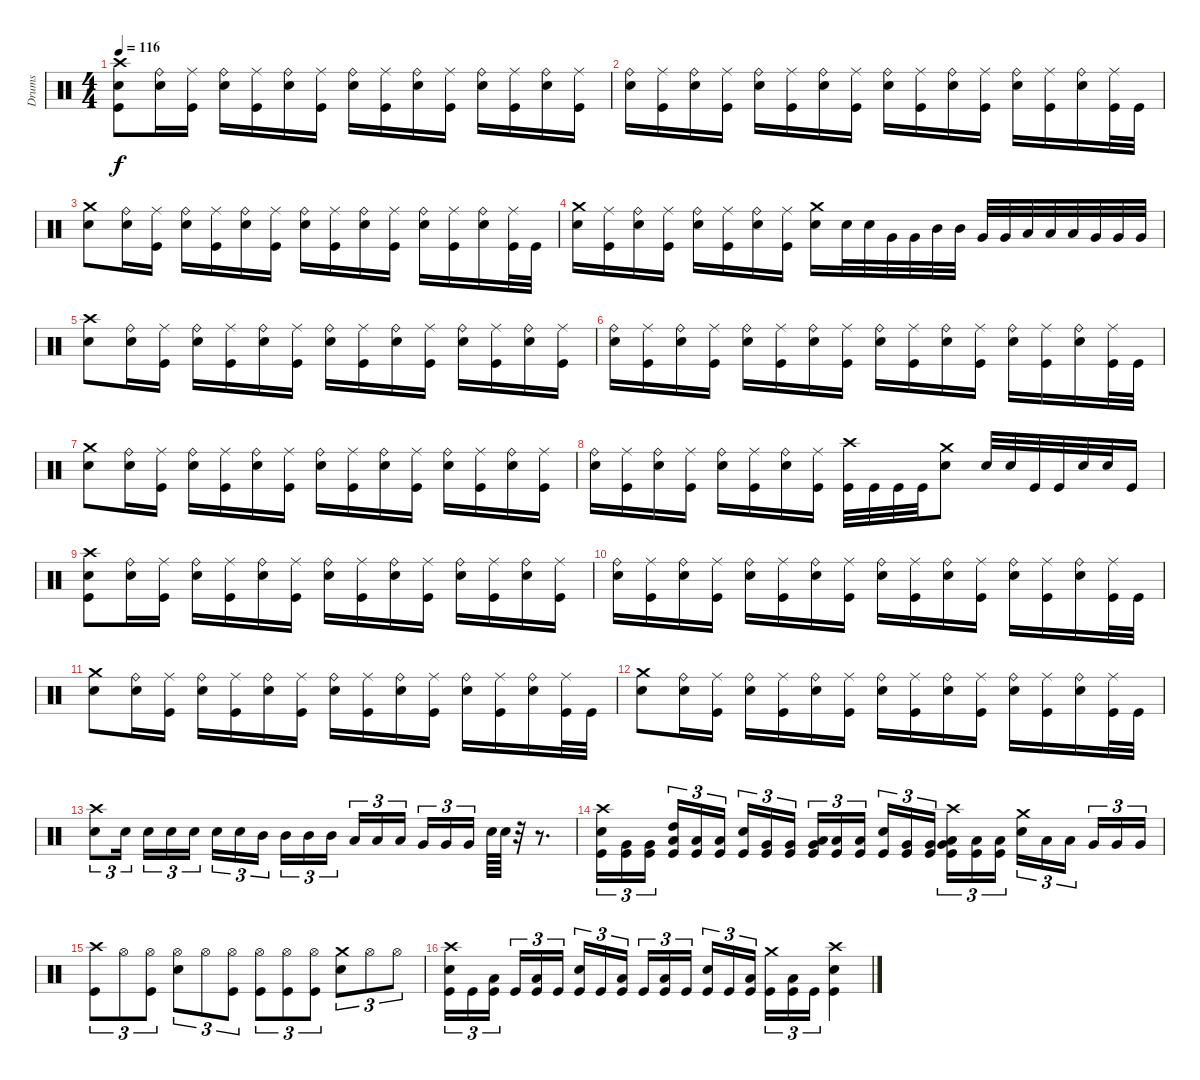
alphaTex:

\track ("Drums" "Drums") {instrument percussion}
\staff {score}
\articulation defaults
\ts (4 4)
\tempo 116
\clef neutral
\ks c
("Crash high (hit)" "Electric Snare (hit)" "Kick (hit)").8{dy f} ("Ride (bell)" "Electric Snare (hit)").16 ("Ride (middle)" "Kick (hit)").16 ("Ride (bell)" "Electric Snare (hit)").16 ("Ride (middle)" "Kick (hit)").16 ("Ride (bell)" "Electric Snare (hit)").16 ("Ride (middle)" "Kick (hit)").16 ("Ride (bell)" "Electric Snare (hit)").16 ("Ride (middle)" "Kick (hit)").16 ("Ride (bell)" "Electric Snare (hit)").16 ("Ride (middle)" "Kick (hit)").16 ("Ride (bell)" "Electric Snare (hit)").16 ("Ride (middle)" "Kick (hit)").16 ("Ride (bell)" "Electric Snare (hit)").16 ("Ride (middle)" "Kick (hit)").16 |
("Ride (bell)" "Electric Snare (hit)").16 ("Ride (middle)" "Kick (hit)").16 ("Ride (bell)" "Electric Snare (hit)").16 ("Ride (middle)" "Kick (hit)").16 ("Ride (bell)" "Electric Snare (hit)").16 ("Ride (middle)" "Kick (hit)").16 ("Ride (bell)" "Electric Snare (hit)").16 ("Ride (middle)" "Kick (hit)").16 ("Ride (bell)" "Electric Snare (hit)").16 ("Ride (middle)" "Kick (hit)").16 ("Ride (bell)" "Electric Snare (hit)").16 ("Ride (middle)" "Kick (hit)").16 ("Ride (bell)" "Electric Snare (hit)").16 ("Ride (middle)" "Kick (hit)").16 ("Ride (bell)" "Electric Snare (hit)").16 ("Ride (middle)" "Kick (hit)").32 "Kick (hit)".32 |
("Crash medium (hit)" "Electric Snare (hit)").8 ("Ride (bell)" "Electric Snare (hit)").16 ("Ride (middle)" "Kick (hit)").16 ("Ride (bell)" "Electric Snare (hit)").16 ("Ride (middle)" "Kick (hit)").16 ("Ride (bell)" "Electric Snare (hit)").16 ("Ride (middle)" "Kick (hit)").16 ("Ride (bell)" "Electric Snare (hit)").16 ("Ride (middle)" "Kick (hit)").16 ("Ride (bell)" "Electric Snare (hit)").16 ("Ride (middle)" "Kick (hit)").16 ("Ride (bell)" "Electric Snare (hit)").16 ("Ride (middle)" "Kick (hit)").16 ("Ride (bell)" "Electric Snare (hit)").16 ("Ride (middle)" "Kick (hit)").32 "Kick (hit)".32 |
("Crash medium (hit)" "Electric Snare (hit)").16 ("Ride (middle)" "Kick (hit)").16 ("Ride (bell)" "Electric Snare (hit)").16 ("Ride (middle)" "Kick (hit)").16 ("Ride (bell)" "Electric Snare (hit)").16 ("Ride (middle)" "Kick (hit)").16 ("Ride (bell)" "Electric Snare (hit)").16 ("Ride (middle)" "Kick (hit)").16 ("Crash medium (hit)" "Electric Snare (hit)").16 "Electric Snare (hit)".32 "Electric Snare (hit)".32 "Very Low Tom (hit)".32 "Very Low Tom (hit)".32 "Mid Tom (hit)".32 "Mid Tom (hit)".32 "Very Low Tom (hit)".32 "Very Low Tom (hit)".32 "Low Tom (hit)".32 "Low Tom (hit)".32 "Low Tom (hit)".32 "Very Low Tom (hit)".32 "Very Low Tom (hit)".32 "Very Low Tom (hit)".32 |
("Crash high (hit)" "Electric Snare (hit)").8 ("Ride (bell)" "Electric Snare (hit)").16 ("Ride (middle)" "Kick (hit)").16 ("Ride (bell)" "Electric Snare (hit)").16 ("Ride (middle)" "Kick (hit)").16 ("Ride (bell)" "Electric Snare (hit)").16 ("Ride (middle)" "Kick (hit)").16 ("Ride (bell)" "Electric Snare (hit)").16 ("Ride (middle)" "Kick (hit)").16 ("Ride (bell)" "Electric Snare (hit)").16 ("Ride (middle)" "Kick (hit)").16 ("Ride (bell)" "Electric Snare (hit)").16 ("Ride (middle)" "Kick (hit)").16 ("Ride (bell)" "Electric Snare (hit)").16 ("Ride (middle)" "Kick (hit)").16 |
("Ride (bell)" "Electric Snare (hit)").16 ("Ride (middle)" "Kick (hit)").16 ("Ride (bell)" "Electric Snare (hit)").16 ("Ride (middle)" "Kick (hit)").16 ("Ride (bell)" "Electric Snare (hit)").16 ("Ride (middle)" "Kick (hit)").16 ("Ride (bell)" "Electric Snare (hit)").16 ("Ride (middle)" "Kick (hit)").16 ("Ride (bell)" "Electric Snare (hit)").16 ("Ride (middle)" "Kick (hit)").16 ("Ride (bell)" "Electric Snare (hit)").16 ("Ride (middle)" "Kick (hit)").16 ("Ride (bell)" "Electric Snare (hit)").16 ("Ride (middle)" "Kick (hit)").16 ("Ride (bell)" "Electric Snare (hit)").16 ("Ride (middle)" "Kick (hit)").32 "Kick (hit)".32 |
("Crash medium (hit)" "Electric Snare (hit)").8 ("Ride (bell)" "Electric Snare (hit)").16 ("Ride (middle)" "Kick (hit)").16 ("Ride (bell)" "Electric Snare (hit)").16 ("Ride (middle)" "Kick (hit)").16 ("Ride (bell)" "Electric Snare (hit)").16 ("Ride (middle)" "Kick (hit)").16 ("Ride (bell)" "Electric Snare (hit)").16 ("Ride (middle)" "Kick (hit)").16 ("Ride (bell)" "Electric Snare (hit)").16 ("Ride (middle)" "Kick (hit)").16 ("Ride (bell)" "Electric Snare (hit)").16 ("Ride (middle)" "Kick (hit)").16 ("Ride (bell)" "Electric Snare (hit)").16 ("Ride (middle)" "Kick (hit)").16 |
("Ride (bell)" "Electric Snare (hit)").16 ("Ride (middle)" "Kick (hit)").16 ("Ride (bell)" "Electric Snare (hit)").16 ("Ride (middle)" "Kick (hit)").16 ("Ride (bell)" "Electric Snare (hit)").16 ("Ride (middle)" "Kick (hit)").16 ("Ride (bell)" "Electric Snare (hit)").16 ("Ride (middle)" "Kick (hit)").16 ("Crash high (hit)" "Kick (hit)").32 "Kick (hit)".32 "Kick (hit)".32 "Kick (hit)".32 ("Crash medium (hit)" "Electric Snare (hit)").8 "Electric Snare (hit)".32 "Electric Snare (hit)".32 "Kick (hit)".32 "Kick (hit)".32 "Electric Snare (hit)".32 "Electric Snare (hit)".32 "Kick (hit)".16 |
("Crash high (hit)" "Electric Snare (hit)" "Kick (hit)").8 ("Ride (bell)" "Electric Snare (hit)").16 ("Ride (middle)" "Kick (hit)").16 ("Ride (bell)" "Electric Snare (hit)").16 ("Ride (middle)" "Kick (hit)").16 ("Ride (bell)" "Electric Snare (hit)").16 ("Ride (middle)" "Kick (hit)").16 ("Ride (bell)" "Electric Snare (hit)").16 ("Ride (middle)" "Kick (hit)").16 ("Ride (bell)" "Electric Snare (hit)").16 ("Ride (middle)" "Kick (hit)").16 ("Ride (bell)" "Electric Snare (hit)").16 ("Ride (middle)" "Kick (hit)").16 ("Ride (bell)" "Electric Snare (hit)").16 ("Ride (middle)" "Kick (hit)").16 |
("Ride (bell)" "Electric Snare (hit)").16 ("Ride (middle)" "Kick (hit)").16 ("Ride (bell)" "Electric Snare (hit)").16 ("Ride (middle)" "Kick (hit)").16 ("Ride (bell)" "Electric Snare (hit)").16 ("Ride (middle)" "Kick (hit)").16 ("Ride (bell)" "Electric Snare (hit)").16 ("Ride (middle)" "Kick (hit)").16 ("Ride (bell)" "Electric Snare (hit)").16 ("Ride (middle)" "Kick (hit)").16 ("Ride (bell)" "Electric Snare (hit)").16 ("Ride (middle)" "Kick (hit)").16 ("Ride (bell)" "Electric Snare (hit)").16 ("Ride (middle)" "Kick (hit)").16 ("Ride (bell)" "Electric Snare (hit)").16 ("Ride (middle)" "Kick (hit)").32 "Kick (hit)".32 |
("Crash medium (hit)" "Electric Snare (hit)").8 ("Ride (bell)" "Electric Snare (hit)").16 ("Ride (middle)" "Kick (hit)").16 ("Ride (bell)" "Electric Snare (hit)").16 ("Ride (middle)" "Kick (hit)").16 ("Ride (bell)" "Electric Snare (hit)").16 ("Ride (middle)" "Kick (hit)").16 ("Ride (bell)" "Electric Snare (hit)").16 ("Ride (middle)" "Kick (hit)").16 ("Ride (bell)" "Electric Snare (hit)").16 ("Ride (middle)" "Kick (hit)").16 ("Ride (bell)" "Electric Snare (hit)").16 ("Ride (middle)" "Kick (hit)").16 ("Ride (bell)" "Electric Snare (hit)").16 ("Ride (middle)" "Kick (hit)").32 "Kick (hit)".32 |
("Crash medium (hit)" "Electric Snare (hit)").8 ("Ride (bell)" "Electric Snare (hit)").16 ("Ride (middle)" "Kick (hit)").16 ("Ride (bell)" "Electric Snare (hit)").16 ("Ride (middle)" "Kick (hit)").16 ("Ride (bell)" "Electric Snare (hit)").16 ("Ride (middle)" "Kick (hit)").16 ("Ride (bell)" "Electric Snare (hit)").16 ("Ride (middle)" "Kick (hit)").16 ("Ride (bell)" "Electric Snare (hit)").16 ("Ride (middle)" "Kick (hit)").16 ("Ride (bell)" "Electric Snare (hit)").16 ("Ride (middle)" "Kick (hit)").16 ("Ride (bell)" "Electric Snare (hit)").16 ("Ride (middle)" "Kick (hit)").32 "Kick (hit)".32 |
("Crash high (hit)" "Electric Snare (hit)").8{tu (3 2)} "Electric Snare (hit)".16{tu (3 2)} "Electric Snare (hit)".16{tu (3 2)} "Electric Snare (hit)".16{tu (3 2)} "Electric Snare (hit)".16{tu (3 2)} "Electric Snare (hit)".16{tu (3 2)} "Electric Snare (hit)".16{tu (3 2)} "Mid Tom (hit)".16{tu (3 2)} "Mid Tom (hit)".16{tu (3 2)} "Mid Tom (hit)".16{tu (3 2)} "Mid Tom (hit)".16{tu (3 2)} "Low Tom (hit)".16{tu (3 2)} "Low Tom (hit)".16{tu (3 2)} "Low Tom (hit)".16{tu (3 2)} "Very Low Tom (hit)".16{tu (3 2)} "Very Low Tom (hit)".16{tu (3 2)} "Very Low Tom (hit)".16{tu (3 2)} "Electric Snare (hit)".64 "Electric Snare (hit)".64 r.32 r.8{d} |
("Crash high (hit)" "Electric Snare (hit)" "Kick (hit)").16{tu (3 2)} ("Very Low Tom (hit)" "Kick (hit)").16{tu (3 2)} ("Very Low Tom (hit)" "Kick (hit)").16{tu (3 2)} ("High Tom (hit)" "Low Tom (hit)" "Kick (hit)").16{tu (3 2)} ("Low Floor Tom (hit)" "Kick (hit)").16{tu (3 2)} ("Low Floor Tom (hit)" "Kick (hit)").16{tu (3 2)} ("Electric Snare (hit)" "Kick (hit)").16{tu (3 2)} ("Very Low Tom (hit)" "Kick (hit)").16{tu (3 2)} ("Very Low Tom (hit)" "Kick (hit)").16{tu (3 2)} ("Low Tom (hit)" "Very Low Tom (hit)" "Kick (hit)").16{tu (3 2)} ("Low Floor Tom (hit)" "Kick (hit)").16{tu (3 2)} ("Low Floor Tom (hit)" "Kick (hit)").16{tu (3 2)} ("Electric Snare (hit)" "Kick (hit)").16{tu (3 2)} ("Very Low Tom (hit)" "Kick (hit)").16{tu (3 2)} ("Very Low Tom (hit)" "Kick (hit)").16{tu (3 2)} ("Crash high (hit)" "Low Tom (hit)" "Very Low Tom (hit)" "Kick (hit)").16{tu (3 2)} ("Low Floor Tom (hit)" "Kick (hit)").16{tu (3 2)} ("Low Floor Tom (hit)" "Kick (hit)").16{tu (3 2)} ("Crash medium (hit)" "Electric Snare (hit)").16{tu (3 2)} "Low Tom (hit)".16{tu (3 2)} "Low Tom (hit)".16{tu (3 2)} "Very Low Tom (hit)".16{tu (3 2)} "Very Low Tom (hit)".16{tu (3 2)} "Very Low Tom (hit)".16{tu (3 2)} |
("Crash high (hit)" "Kick (hit)").8{tu (3 2)} "Hi-Hat (open)".8{tu (3 2)} ("Hi-Hat (open)" "Kick (hit)").8{tu (3 2)} ("Hi-Hat (open)" "Electric Snare (hit)").8{tu (3 2)} "Hi-Hat (open)".8{tu (3 2)} ("Hi-Hat (open)" "Kick (hit)").8{tu (3 2)} ("Hi-Hat (open)" "Kick (hit)").8{tu (3 2)} ("Hi-Hat (open)" "Kick (hit)").8{tu (3 2)} ("Hi-Hat (open)" "Kick (hit)").8{tu (3 2)} ("Crash medium (hit)" "Electric Snare (hit)").8{tu (3 2)} "Hi-Hat (open)".8{tu (3 2)} "Hi-Hat (open)".8{tu (3 2)} |
("Crash high (hit)" "Electric Snare (hit)" "Kick (hit)").16{tu (3 2)} "Kick (hit)".16{tu (3 2)} ("Low Tom (hit)" "Kick (hit)").16{tu (3 2)} "Kick (hit)".16{tu (3 2)} ("Low Tom (hit)" "Kick (hit)").16{tu (3 2)} "Kick (hit)".16{tu (3 2)} ("Electric Snare (hit)" "Kick (hit)").16{tu (3 2)} "Kick (hit)".16{tu (3 2)} ("Low Tom (hit)" "Kick (hit)").16{tu (3 2)} "Kick (hit)".16{tu (3 2)} ("Low Tom (hit)" "Kick (hit)").16{tu (3 2)} "Kick (hit)".16{tu (3 2)} ("Electric Snare (hit)" "Kick (hit)").16{tu (3 2)} "Kick (hit)".16{tu (3 2)} ("Low Tom (hit)" "Kick (hit)").16{tu (3 2)} ("Crash medium (hit)" "Kick (hit)").16{tu (3 2)} ("Low Tom (hit)" "Kick (hit)").16{tu (3 2)} "Kick (hit)".16{tu (3 2)} ("Crash high (hit)" "Electric Snare (hit)" "Kick (hit)").4
